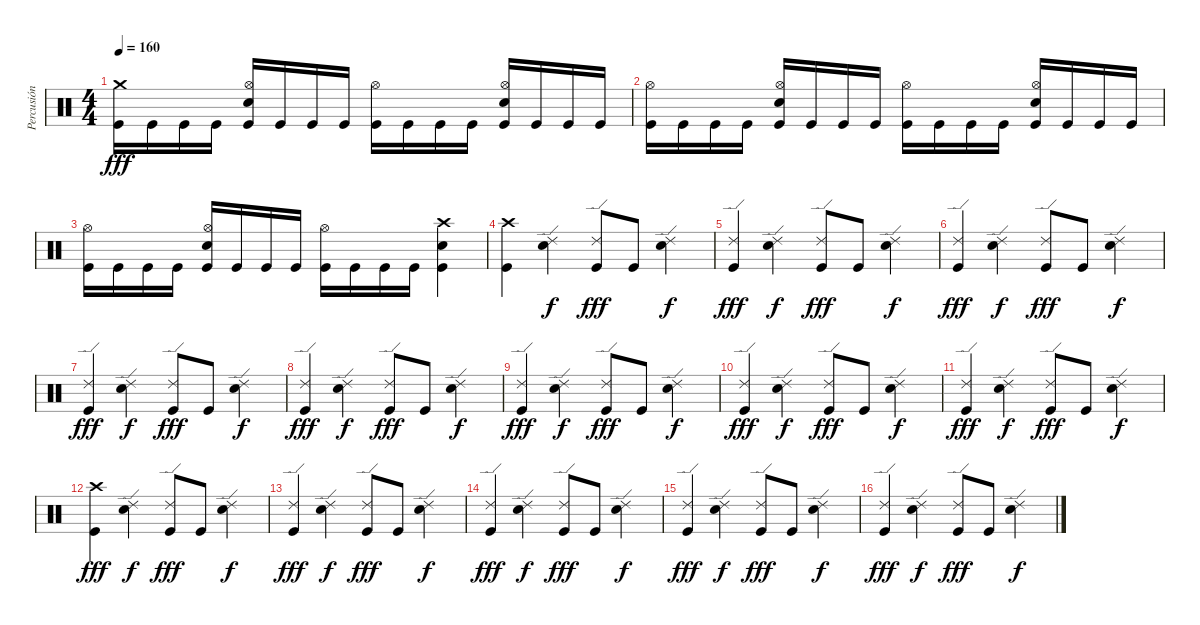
\track ("Percusión" "Percusión") {instrument percussion}
\staff {score}
\articulation defaults
\ts (4 4)
\tempo 160
\clef neutral
\ks c
("Crash medium (hit)" "Kick (hit)").16{dy fff} "Kick (hit)".16 "Kick (hit)".16 "Kick (hit)".16 ("Hi-Hat (open)" "Electric Snare (hit)" "Kick (hit)").16 "Kick (hit)".16 "Kick (hit)".16 "Kick (hit)".16 ("Hi-Hat (open)" "Kick (hit)").16 "Kick (hit)".16 "Kick (hit)".16 "Kick (hit)".16 ("Hi-Hat (open)" "Electric Snare (hit)" "Kick (hit)").16 "Kick (hit)".16 "Kick (hit)".16 "Kick (hit)".16 |
("Hi-Hat (open)" "Kick (hit)").16 "Kick (hit)".16 "Kick (hit)".16 "Kick (hit)".16 ("Hi-Hat (open)" "Electric Snare (hit)" "Kick (hit)").16 "Kick (hit)".16 "Kick (hit)".16 "Kick (hit)".16 ("Hi-Hat (open)" "Kick (hit)").16 "Kick (hit)".16 "Kick (hit)".16 "Kick (hit)".16 ("Hi-Hat (open)" "Electric Snare (hit)" "Kick (hit)").16 "Kick (hit)".16 "Kick (hit)".16 "Kick (hit)".16 |
("Hi-Hat (open)" "Kick (hit)").16 "Kick (hit)".16 "Kick (hit)".16 "Kick (hit)".16 ("Hi-Hat (open)" "Electric Snare (hit)" "Kick (hit)").16 "Kick (hit)".16 "Kick (hit)".16 "Kick (hit)".16 ("Hi-Hat (open)" "Kick (hit)").16 "Kick (hit)".16 "Kick (hit)".16 "Kick (hit)".16 ("Crash high (hit)" "Electric Snare (hit)" "Kick (hit)").4 |
("Crash high (hit)" "Kick (hit)").4 ("Ride (edge) 2" "Electric Snare (hit)").4{dy f} ("Ride (edge) 2" "Kick (hit)").8{dy fff} "Kick (hit)".8 ("Ride (edge) 2" "Electric Snare (hit)").4{dy f} |
("Ride (edge) 2" "Kick (hit)").4{dy fff} ("Ride (edge) 2" "Electric Snare (hit)").4{dy f} ("Ride (edge) 2" "Kick (hit)").8{dy fff} "Kick (hit)".8 ("Ride (edge) 2" "Electric Snare (hit)").4{dy f} |
("Ride (edge) 2" "Kick (hit)").4{dy fff} ("Ride (edge) 2" "Electric Snare (hit)").4{dy f} ("Ride (edge) 2" "Kick (hit)").8{dy fff} "Kick (hit)".8 ("Ride (edge) 2" "Electric Snare (hit)").4{dy f} |
("Ride (edge) 2" "Kick (hit)").4{dy fff} ("Ride (edge) 2" "Electric Snare (hit)").4{dy f} ("Ride (edge) 2" "Kick (hit)").8{dy fff} "Kick (hit)".8 ("Ride (edge) 2" "Electric Snare (hit)").4{dy f} |
("Ride (edge) 2" "Kick (hit)").4{dy fff} ("Ride (edge) 2" "Electric Snare (hit)").4{dy f} ("Ride (edge) 2" "Kick (hit)").8{dy fff} "Kick (hit)".8 ("Ride (edge) 2" "Electric Snare (hit)").4{dy f} |
("Ride (edge) 2" "Kick (hit)").4{dy fff} ("Ride (edge) 2" "Electric Snare (hit)").4{dy f} ("Ride (edge) 2" "Kick (hit)").8{dy fff} "Kick (hit)".8 ("Ride (edge) 2" "Electric Snare (hit)").4{dy f} |
("Ride (edge) 2" "Kick (hit)").4{dy fff} ("Ride (edge) 2" "Electric Snare (hit)").4{dy f} ("Ride (edge) 2" "Kick (hit)").8{dy fff} "Kick (hit)".8 ("Ride (edge) 2" "Electric Snare (hit)").4{dy f} |
("Ride (edge) 2" "Kick (hit)").4{dy fff} ("Ride (edge) 2" "Electric Snare (hit)").4{dy f} ("Ride (edge) 2" "Kick (hit)").8{dy fff} "Kick (hit)".8 ("Ride (edge) 2" "Electric Snare (hit)").4{dy f} |
("Crash high (hit)" "Kick (hit)").4{dy fff} ("Ride (edge) 2" "Electric Snare (hit)").4{dy f} ("Ride (edge) 2" "Kick (hit)").8{dy fff} "Kick (hit)".8 ("Ride (edge) 2" "Electric Snare (hit)").4{dy f} |
("Ride (edge) 2" "Kick (hit)").4{dy fff} ("Ride (edge) 2" "Electric Snare (hit)").4{dy f} ("Ride (edge) 2" "Kick (hit)").8{dy fff} "Kick (hit)".8 ("Ride (edge) 2" "Electric Snare (hit)").4{dy f} |
("Ride (edge) 2" "Kick (hit)").4{dy fff} ("Ride (edge) 2" "Electric Snare (hit)").4{dy f} ("Ride (edge) 2" "Kick (hit)").8{dy fff} "Kick (hit)".8 ("Ride (edge) 2" "Electric Snare (hit)").4{dy f} |
("Ride (edge) 2" "Kick (hit)").4{dy fff} ("Ride (edge) 2" "Electric Snare (hit)").4{dy f} ("Ride (edge) 2" "Kick (hit)").8{dy fff} "Kick (hit)".8 ("Ride (edge) 2" "Electric Snare (hit)").4{dy f} |
("Ride (edge) 2" "Kick (hit)").4{dy fff} ("Ride (edge) 2" "Electric Snare (hit)").4{dy f} ("Ride (edge) 2" "Kick (hit)").8{dy fff} "Kick (hit)".8 ("Ride (edge) 2" "Electric Snare (hit)").4{dy f}
